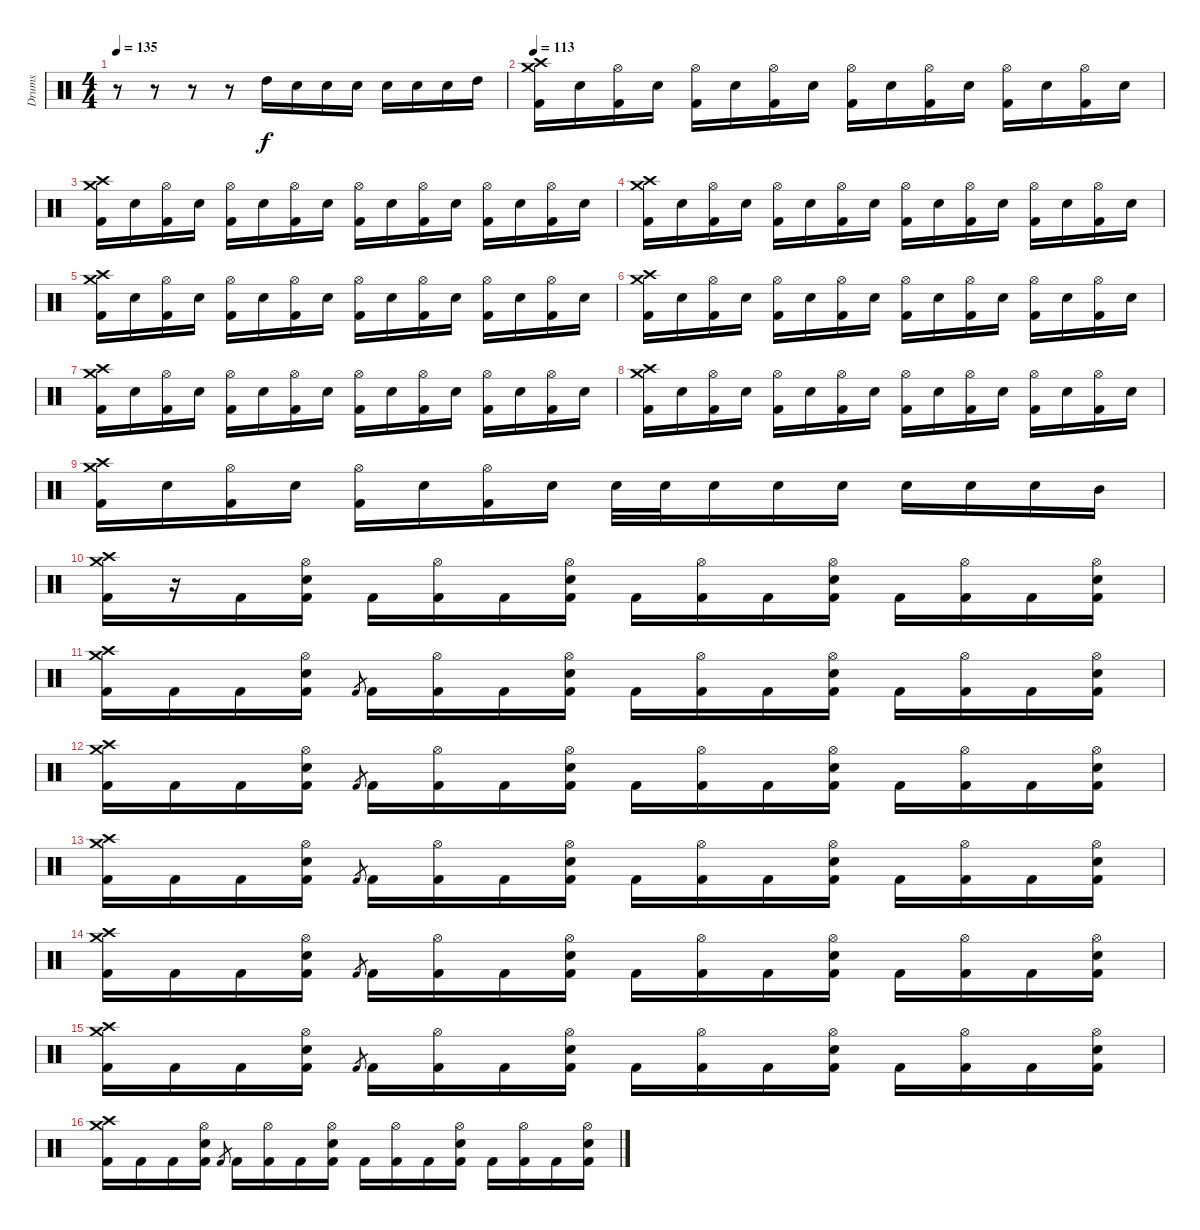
\track ("Drums" "Drums") {instrument percussion}
\staff {score}
\articulation defaults
\ts (4 4)
\tempo 135
\clef neutral
\ks c
r.8{dy f volume 0} r.8 r.8 r.8 "High Tom (hit)".16{volume 13} "Snare (hit) 2".16 "Snare (hit) 2".16 "Snare (hit) 2".16 "Snare (hit) 2".16 "Snare (hit) 2".16 "Snare (hit) 2".16 "High Tom (hit)".16 |
\tempo 113
("Crash high (hit)" "Crash medium (hit)" "Kick (hit) 2").16 "Snare (hit) 2".16 ("Hi-Hat (open)" "Kick (hit) 2").16 "Snare (hit) 2".16 ("Hi-Hat (open)" "Kick (hit) 2").16 "Snare (hit) 2".16 ("Hi-Hat (open)" "Kick (hit) 2").16 "Snare (hit) 2".16 ("Hi-Hat (open)" "Kick (hit) 2").16 "Snare (hit) 2".16 ("Hi-Hat (open)" "Kick (hit) 2").16 "Snare (hit) 2".16 ("Hi-Hat (open)" "Kick (hit) 2").16 "Snare (hit) 2".16 ("Hi-Hat (open)" "Kick (hit) 2").16 "Snare (hit) 2".16 |
("Crash high (hit)" "Crash medium (hit)" "Kick (hit) 2").16 "Snare (hit) 2".16 ("Hi-Hat (open)" "Kick (hit) 2").16 "Snare (hit) 2".16 ("Hi-Hat (open)" "Kick (hit) 2").16 "Snare (hit) 2".16 ("Hi-Hat (open)" "Kick (hit) 2").16 "Snare (hit) 2".16 ("Hi-Hat (open)" "Kick (hit) 2").16 "Snare (hit) 2".16 ("Hi-Hat (open)" "Kick (hit) 2").16 "Snare (hit) 2".16 ("Hi-Hat (open)" "Kick (hit) 2").16 "Snare (hit) 2".16 ("Hi-Hat (open)" "Kick (hit) 2").16 "Snare (hit) 2".16 |
("Crash high (hit)" "Crash medium (hit)" "Kick (hit) 2").16 "Snare (hit) 2".16 ("Hi-Hat (open)" "Kick (hit) 2").16 "Snare (hit) 2".16 ("Hi-Hat (open)" "Kick (hit) 2").16 "Snare (hit) 2".16 ("Hi-Hat (open)" "Kick (hit) 2").16 "Snare (hit) 2".16 ("Hi-Hat (open)" "Kick (hit) 2").16 "Snare (hit) 2".16 ("Hi-Hat (open)" "Kick (hit) 2").16 "Snare (hit) 2".16 ("Hi-Hat (open)" "Kick (hit) 2").16 "Snare (hit) 2".16 ("Hi-Hat (open)" "Kick (hit) 2").16 "Snare (hit) 2".16 |
("Crash high (hit)" "Crash medium (hit)" "Kick (hit) 2").16 "Snare (hit) 2".16 ("Hi-Hat (open)" "Kick (hit) 2").16 "Snare (hit) 2".16 ("Hi-Hat (open)" "Kick (hit) 2").16 "Snare (hit) 2".16 ("Hi-Hat (open)" "Kick (hit) 2").16 "Snare (hit) 2".16 ("Hi-Hat (open)" "Kick (hit) 2").16 "Snare (hit) 2".16 ("Hi-Hat (open)" "Kick (hit) 2").16 "Snare (hit) 2".16 ("Hi-Hat (open)" "Kick (hit) 2").16 "Snare (hit) 2".16 ("Hi-Hat (open)" "Kick (hit) 2").16 "Snare (hit) 2".16 |
("Crash high (hit)" "Crash medium (hit)" "Kick (hit) 2").16 "Snare (hit) 2".16 ("Hi-Hat (open)" "Kick (hit) 2").16 "Snare (hit) 2".16 ("Hi-Hat (open)" "Kick (hit) 2").16 "Snare (hit) 2".16 ("Hi-Hat (open)" "Kick (hit) 2").16 "Snare (hit) 2".16 ("Hi-Hat (open)" "Kick (hit) 2").16 "Snare (hit) 2".16 ("Hi-Hat (open)" "Kick (hit) 2").16 "Snare (hit) 2".16 ("Hi-Hat (open)" "Kick (hit) 2").16 "Snare (hit) 2".16 ("Hi-Hat (open)" "Kick (hit) 2").16 "Snare (hit) 2".16 |
("Crash high (hit)" "Crash medium (hit)" "Kick (hit) 2").16 "Snare (hit) 2".16 ("Hi-Hat (open)" "Kick (hit) 2").16 "Snare (hit) 2".16 ("Hi-Hat (open)" "Kick (hit) 2").16 "Snare (hit) 2".16 ("Hi-Hat (open)" "Kick (hit) 2").16 "Snare (hit) 2".16 ("Hi-Hat (open)" "Kick (hit) 2").16 "Snare (hit) 2".16 ("Hi-Hat (open)" "Kick (hit) 2").16 "Snare (hit) 2".16 ("Hi-Hat (open)" "Kick (hit) 2").16 "Snare (hit) 2".16 ("Hi-Hat (open)" "Kick (hit) 2").16 "Snare (hit) 2".16 |
("Crash high (hit)" "Crash medium (hit)" "Kick (hit) 2").16 "Snare (hit) 2".16 ("Hi-Hat (open)" "Kick (hit) 2").16 "Snare (hit) 2".16 ("Hi-Hat (open)" "Kick (hit) 2").16 "Snare (hit) 2".16 ("Hi-Hat (open)" "Kick (hit) 2").16 "Snare (hit) 2".16 ("Hi-Hat (open)" "Kick (hit) 2").16 "Snare (hit) 2".16 ("Hi-Hat (open)" "Kick (hit) 2").16 "Snare (hit) 2".16 ("Hi-Hat (open)" "Kick (hit) 2").16 "Snare (hit) 2".16 ("Hi-Hat (open)" "Kick (hit) 2").16 "Snare (hit) 2".16 |
("Crash high (hit)" "Crash medium (hit)" "Kick (hit) 2").16 "Snare (hit) 2".16 ("Hi-Hat (open)" "Kick (hit) 2").16 "Snare (hit) 2".16 ("Hi-Hat (open)" "Kick (hit) 2").16 "Snare (hit) 2".16 ("Hi-Hat (open)" "Kick (hit) 2").16 "Snare (hit) 2".16 "Snare (hit) 2".32 "Snare (hit) 2".32 "Snare (hit) 2".16 "Snare (hit) 2".16 "Snare (hit) 2".16 "Snare (hit) 2".16 "Snare (hit) 2".16 "Snare (hit) 2".16 "Mid Tom (hit)".16 |
("Crash high (hit)" "Crash medium (hit)" "Kick (hit) 2").16 r.16 "Kick (hit) 2".16 ("Hi-Hat (open)" "Snare (hit) 2" "Kick (hit) 2").16 "Kick (hit) 2".16 ("Hi-Hat (open)" "Kick (hit) 2").16 "Kick (hit) 2".16 ("Hi-Hat (open)" "Snare (hit) 2" "Kick (hit) 2").16 "Kick (hit) 2".16 ("Hi-Hat (open)" "Kick (hit) 2").16 "Kick (hit) 2".16 ("Hi-Hat (open)" "Snare (hit) 2" "Kick (hit) 2").16 "Kick (hit) 2".16 ("Hi-Hat (open)" "Kick (hit) 2").16 "Kick (hit) 2".16 ("Hi-Hat (open)" "Snare (hit) 2" "Kick (hit) 2").16 |
("Crash high (hit)" "Crash medium (hit)" "Kick (hit) 2").16 "Kick (hit) 2".16 "Kick (hit) 2".16 ("Hi-Hat (open)" "Snare (hit) 2" "Kick (hit) 2").16 "Kick (hit) 2".8{gr} "Kick (hit) 2".16 ("Hi-Hat (open)" "Kick (hit) 2").16 "Kick (hit) 2".16 ("Hi-Hat (open)" "Snare (hit) 2" "Kick (hit) 2").16 "Kick (hit) 2".16 ("Hi-Hat (open)" "Kick (hit) 2").16 "Kick (hit) 2".16 ("Hi-Hat (open)" "Snare (hit) 2" "Kick (hit) 2").16 "Kick (hit) 2".16 ("Hi-Hat (open)" "Kick (hit) 2").16 "Kick (hit) 2".16 ("Hi-Hat (open)" "Snare (hit) 2" "Kick (hit) 2").16 |
("Crash high (hit)" "Crash medium (hit)" "Kick (hit) 2").16 "Kick (hit) 2".16 "Kick (hit) 2".16 ("Hi-Hat (open)" "Snare (hit) 2" "Kick (hit) 2").16 "Kick (hit) 2".8{gr} "Kick (hit) 2".16 ("Hi-Hat (open)" "Kick (hit) 2").16 "Kick (hit) 2".16 ("Hi-Hat (open)" "Snare (hit) 2" "Kick (hit) 2").16 "Kick (hit) 2".16 ("Hi-Hat (open)" "Kick (hit) 2").16 "Kick (hit) 2".16 ("Hi-Hat (open)" "Snare (hit) 2" "Kick (hit) 2").16 "Kick (hit) 2".16 ("Hi-Hat (open)" "Kick (hit) 2").16 "Kick (hit) 2".16 ("Hi-Hat (open)" "Snare (hit) 2" "Kick (hit) 2").16 |
("Crash high (hit)" "Crash medium (hit)" "Kick (hit) 2").16 "Kick (hit) 2".16 "Kick (hit) 2".16 ("Hi-Hat (open)" "Snare (hit) 2" "Kick (hit) 2").16 "Kick (hit) 2".8{gr} "Kick (hit) 2".16 ("Hi-Hat (open)" "Kick (hit) 2").16 "Kick (hit) 2".16 ("Hi-Hat (open)" "Snare (hit) 2" "Kick (hit) 2").16 "Kick (hit) 2".16 ("Hi-Hat (open)" "Kick (hit) 2").16 "Kick (hit) 2".16 ("Hi-Hat (open)" "Snare (hit) 2" "Kick (hit) 2").16 "Kick (hit) 2".16 ("Hi-Hat (open)" "Kick (hit) 2").16 "Kick (hit) 2".16 ("Hi-Hat (open)" "Snare (hit) 2" "Kick (hit) 2").16 |
("Crash high (hit)" "Crash medium (hit)" "Kick (hit) 2").16 "Kick (hit) 2".16 "Kick (hit) 2".16 ("Hi-Hat (open)" "Snare (hit) 2" "Kick (hit) 2").16 "Kick (hit) 2".8{gr} "Kick (hit) 2".16 ("Hi-Hat (open)" "Kick (hit) 2").16 "Kick (hit) 2".16 ("Hi-Hat (open)" "Snare (hit) 2" "Kick (hit) 2").16 "Kick (hit) 2".16 ("Hi-Hat (open)" "Kick (hit) 2").16 "Kick (hit) 2".16 ("Hi-Hat (open)" "Snare (hit) 2" "Kick (hit) 2").16 "Kick (hit) 2".16 ("Hi-Hat (open)" "Kick (hit) 2").16 "Kick (hit) 2".16 ("Hi-Hat (open)" "Snare (hit) 2" "Kick (hit) 2").16 |
("Crash high (hit)" "Crash medium (hit)" "Kick (hit) 2").16 "Kick (hit) 2".16 "Kick (hit) 2".16 ("Hi-Hat (open)" "Snare (hit) 2" "Kick (hit) 2").16 "Kick (hit) 2".8{gr} "Kick (hit) 2".16 ("Hi-Hat (open)" "Kick (hit) 2").16 "Kick (hit) 2".16 ("Hi-Hat (open)" "Snare (hit) 2" "Kick (hit) 2").16 "Kick (hit) 2".16 ("Hi-Hat (open)" "Kick (hit) 2").16 "Kick (hit) 2".16 ("Hi-Hat (open)" "Snare (hit) 2" "Kick (hit) 2").16 "Kick (hit) 2".16 ("Hi-Hat (open)" "Kick (hit) 2").16 "Kick (hit) 2".16 ("Hi-Hat (open)" "Snare (hit) 2" "Kick (hit) 2").16 |
("Crash high (hit)" "Crash medium (hit)" "Kick (hit) 2").16 "Kick (hit) 2".16 "Kick (hit) 2".16 ("Hi-Hat (open)" "Snare (hit) 2" "Kick (hit) 2").16 "Kick (hit) 2".8{gr} "Kick (hit) 2".16 ("Hi-Hat (open)" "Kick (hit) 2").16 "Kick (hit) 2".16 ("Hi-Hat (open)" "Snare (hit) 2" "Kick (hit) 2").16 "Kick (hit) 2".16 ("Hi-Hat (open)" "Kick (hit) 2").16 "Kick (hit) 2".16 ("Hi-Hat (open)" "Snare (hit) 2" "Kick (hit) 2").16 "Kick (hit) 2".16 ("Hi-Hat (open)" "Kick (hit) 2").16 "Kick (hit) 2".16 ("Hi-Hat (open)" "Snare (hit) 2" "Kick (hit) 2").16
